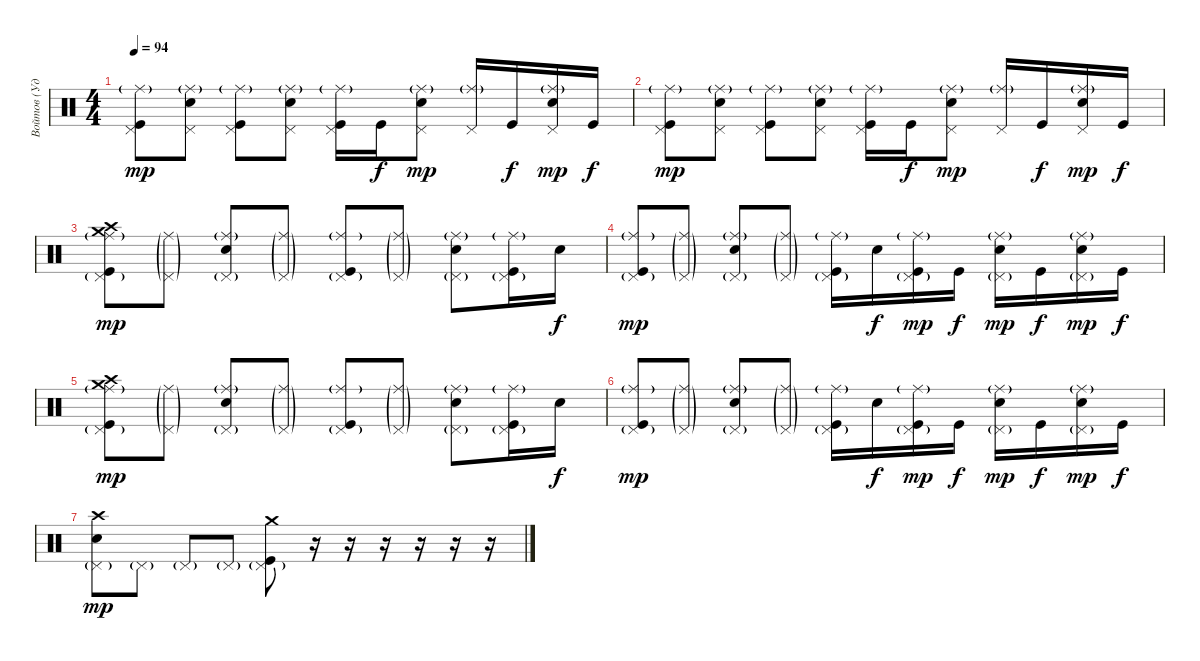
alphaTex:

\track ("Войтов (Ударные)" "Войтов (Уд") {instrument percussion}
\staff {score}
\articulation defaults
\ts (4 4)
\tempo 94
\clef neutral
\ks c
("Ride (middle)"{g} "Pedal Hi-Hat (hit)" "Kick (hit)").8{dy mp} ("Ride (middle)"{g} "Pedal Hi-Hat (hit)" "Electric Snare (hit)").8 ("Ride (middle)"{g} "Pedal Hi-Hat (hit)" "Kick (hit)").8 ("Ride (middle)"{g} "Pedal Hi-Hat (hit)" "Electric Snare (hit)").8 ("Ride (middle)"{g} "Pedal Hi-Hat (hit)" "Kick (hit)").16 "Kick (hit)".16{dy f} ("Ride (middle)"{g} "Pedal Hi-Hat (hit)" "Electric Snare (hit)").8{dy mp} ("Ride (middle)"{g} "Pedal Hi-Hat (hit)").16 "Kick (hit)".16{dy f} ("Ride (middle)"{g} "Pedal Hi-Hat (hit)" "Electric Snare (hit)").16{dy mp} "Kick (hit)".16{dy f} |
("Ride (middle)"{g} "Pedal Hi-Hat (hit)" "Kick (hit)").8{dy mp} ("Ride (middle)"{g} "Pedal Hi-Hat (hit)" "Electric Snare (hit)").8 ("Ride (middle)"{g} "Pedal Hi-Hat (hit)" "Kick (hit)").8 ("Ride (middle)"{g} "Pedal Hi-Hat (hit)" "Electric Snare (hit)").8 ("Ride (middle)"{g} "Pedal Hi-Hat (hit)" "Kick (hit)").16 "Kick (hit)".16{dy f} ("Ride (middle)"{g} "Pedal Hi-Hat (hit)" "Electric Snare (hit)").8{dy mp} ("Ride (middle)"{g} "Pedal Hi-Hat (hit)").16 "Kick (hit)".16{dy f} ("Ride (middle)"{g} "Pedal Hi-Hat (hit)" "Electric Snare (hit)").16{dy mp} "Kick (hit)".16{dy f} |
("Crash medium (hit)" "Crash high (hit)" "Ride (middle)"{g} "Pedal Hi-Hat (hit)"{g} "Kick (hit)").8{dy mp} ("Ride (middle)"{g} "Pedal Hi-Hat (hit)"{g}).8 ("Ride (middle)"{g} "Pedal Hi-Hat (hit)"{g} "Electric Snare (hit)").8 ("Ride (middle)"{g} "Pedal Hi-Hat (hit)"{g}).8 ("Ride (middle)"{g} "Pedal Hi-Hat (hit)"{g} "Kick (hit)").8 ("Ride (middle)"{g} "Pedal Hi-Hat (hit)"{g}).8 ("Ride (middle)"{g} "Pedal Hi-Hat (hit)"{g} "Electric Snare (hit)").8 ("Ride (middle)"{g} "Pedal Hi-Hat (hit)"{g} "Kick (hit)").16 "Electric Snare (hit)".16{dy f} |
("Pedal Hi-Hat (hit)"{g} "Ride (middle)"{g} "Kick (hit)").8{dy mp} ("Pedal Hi-Hat (hit)"{g} "Ride (middle)"{g}).8 ("Pedal Hi-Hat (hit)"{g} "Ride (middle)"{g} "Electric Snare (hit)").8 ("Pedal Hi-Hat (hit)"{g} "Ride (middle)"{g}).8 ("Pedal Hi-Hat (hit)"{g} "Ride (middle)"{g} "Kick (hit)").16 "Electric Snare (hit)".16{dy f} ("Pedal Hi-Hat (hit)"{g} "Ride (middle)"{g} "Kick (hit)").16{dy mp} "Kick (hit)".16{dy f} ("Pedal Hi-Hat (hit)"{g} "Ride (middle)"{g} "Electric Snare (hit)").16{dy mp} "Kick (hit)".16{dy f} ("Pedal Hi-Hat (hit)"{g} "Ride (middle)"{g} "Electric Snare (hit)").16{dy mp} "Kick (hit)".16{dy f} |
("Crash medium (hit)" "Crash high (hit)" "Ride (middle)"{g} "Pedal Hi-Hat (hit)"{g} "Kick (hit)").8{dy mp} ("Ride (middle)"{g} "Pedal Hi-Hat (hit)"{g}).8 ("Ride (middle)"{g} "Pedal Hi-Hat (hit)"{g} "Electric Snare (hit)").8 ("Ride (middle)"{g} "Pedal Hi-Hat (hit)"{g}).8 ("Ride (middle)"{g} "Pedal Hi-Hat (hit)"{g} "Kick (hit)").8 ("Ride (middle)"{g} "Pedal Hi-Hat (hit)"{g}).8 ("Ride (middle)"{g} "Pedal Hi-Hat (hit)"{g} "Electric Snare (hit)").8 ("Ride (middle)"{g} "Pedal Hi-Hat (hit)"{g} "Kick (hit)").16 "Electric Snare (hit)".16{dy f} |
("Pedal Hi-Hat (hit)"{g} "Ride (middle)"{g} "Kick (hit)").8{dy mp} ("Pedal Hi-Hat (hit)"{g} "Ride (middle)"{g}).8 ("Pedal Hi-Hat (hit)"{g} "Ride (middle)"{g} "Electric Snare (hit)").8 ("Pedal Hi-Hat (hit)"{g} "Ride (middle)"{g}).8 ("Pedal Hi-Hat (hit)"{g} "Ride (middle)"{g} "Kick (hit)").16 "Electric Snare (hit)".16{dy f} ("Pedal Hi-Hat (hit)"{g} "Ride (middle)"{g} "Kick (hit)").16{dy mp} "Kick (hit)".16{dy f} ("Pedal Hi-Hat (hit)"{g} "Ride (middle)"{g} "Electric Snare (hit)").16{dy mp} "Kick (hit)".16{dy f} ("Pedal Hi-Hat (hit)"{g} "Ride (middle)"{g} "Electric Snare (hit)").16{dy mp} "Kick (hit)".16{dy f} |
("Crash high (hit)" "Pedal Hi-Hat (hit)"{g} "Electric Snare (hit)").8{dy mp} "Pedal Hi-Hat (hit)"{g}.8 "Pedal Hi-Hat (hit)"{g}.8 "Pedal Hi-Hat (hit)"{g}.8 ("Crash medium (hit)" "Kick (hit)" "Pedal Hi-Hat (hit)"{g}).8 r.16 r.16 r.16 r.16 r.16 r.16
